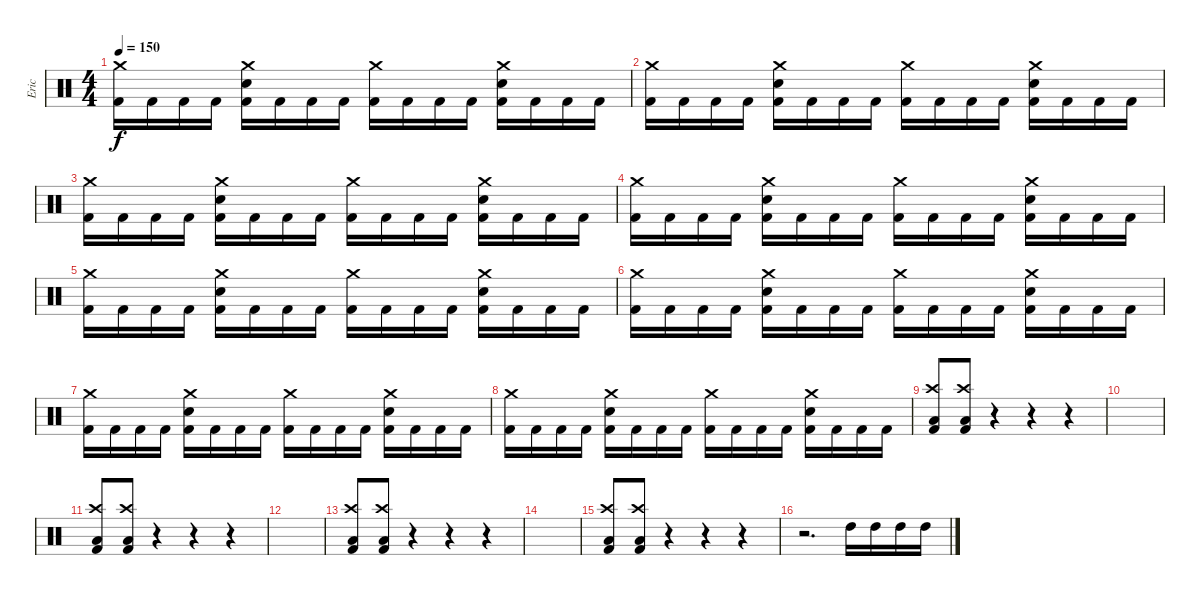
\track ("Eric" "Eric") {instrument percussion}
\staff {score}
\articulation defaults
\ts (4 4)
\tempo 150
\clef neutral
\ks c
("Crash medium (hit)" "Kick (hit) 2").16{dy f} "Kick (hit) 2".16 "Kick (hit) 2".16 "Kick (hit) 2".16 ("Crash medium (hit)" "Electric Snare (hit)" "Kick (hit) 2").16 "Kick (hit) 2".16 "Kick (hit) 2".16 "Kick (hit) 2".16 ("Crash medium (hit)" "Kick (hit) 2").16 "Kick (hit) 2".16 "Kick (hit) 2".16 "Kick (hit) 2".16 ("Crash medium (hit)" "Electric Snare (hit)" "Kick (hit) 2").16 "Kick (hit) 2".16 "Kick (hit) 2".16 "Kick (hit) 2".16 |
("Crash medium (hit)" "Kick (hit) 2").16 "Kick (hit) 2".16 "Kick (hit) 2".16 "Kick (hit) 2".16 ("Crash medium (hit)" "Electric Snare (hit)" "Kick (hit) 2").16 "Kick (hit) 2".16 "Kick (hit) 2".16 "Kick (hit) 2".16 ("Crash medium (hit)" "Kick (hit) 2").16 "Kick (hit) 2".16 "Kick (hit) 2".16 "Kick (hit) 2".16 ("Crash medium (hit)" "Electric Snare (hit)" "Kick (hit) 2").16 "Kick (hit) 2".16 "Kick (hit) 2".16 "Kick (hit) 2".16 |
("Crash medium (hit)" "Kick (hit) 2").16 "Kick (hit) 2".16 "Kick (hit) 2".16 "Kick (hit) 2".16 ("Crash medium (hit)" "Electric Snare (hit)" "Kick (hit) 2").16 "Kick (hit) 2".16 "Kick (hit) 2".16 "Kick (hit) 2".16 ("Crash medium (hit)" "Kick (hit) 2").16 "Kick (hit) 2".16 "Kick (hit) 2".16 "Kick (hit) 2".16 ("Crash medium (hit)" "Electric Snare (hit)" "Kick (hit) 2").16 "Kick (hit) 2".16 "Kick (hit) 2".16 "Kick (hit) 2".16 |
("Crash medium (hit)" "Kick (hit) 2").16 "Kick (hit) 2".16 "Kick (hit) 2".16 "Kick (hit) 2".16 ("Crash medium (hit)" "Electric Snare (hit)" "Kick (hit) 2").16 "Kick (hit) 2".16 "Kick (hit) 2".16 "Kick (hit) 2".16 ("Crash medium (hit)" "Kick (hit) 2").16 "Kick (hit) 2".16 "Kick (hit) 2".16 "Kick (hit) 2".16 ("Crash medium (hit)" "Electric Snare (hit)" "Kick (hit) 2").16 "Kick (hit) 2".16 "Kick (hit) 2".16 "Kick (hit) 2".16 |
("Crash medium (hit)" "Kick (hit) 2").16 "Kick (hit) 2".16 "Kick (hit) 2".16 "Kick (hit) 2".16 ("Crash medium (hit)" "Electric Snare (hit)" "Kick (hit) 2").16 "Kick (hit) 2".16 "Kick (hit) 2".16 "Kick (hit) 2".16 ("Crash medium (hit)" "Kick (hit) 2").16 "Kick (hit) 2".16 "Kick (hit) 2".16 "Kick (hit) 2".16 ("Crash medium (hit)" "Electric Snare (hit)" "Kick (hit) 2").16 "Kick (hit) 2".16 "Kick (hit) 2".16 "Kick (hit) 2".16 |
("Crash medium (hit)" "Kick (hit) 2").16 "Kick (hit) 2".16 "Kick (hit) 2".16 "Kick (hit) 2".16 ("Crash medium (hit)" "Electric Snare (hit)" "Kick (hit) 2").16 "Kick (hit) 2".16 "Kick (hit) 2".16 "Kick (hit) 2".16 ("Crash medium (hit)" "Kick (hit) 2").16 "Kick (hit) 2".16 "Kick (hit) 2".16 "Kick (hit) 2".16 ("Crash medium (hit)" "Electric Snare (hit)" "Kick (hit) 2").16 "Kick (hit) 2".16 "Kick (hit) 2".16 "Kick (hit) 2".16 |
("Crash medium (hit)" "Kick (hit) 2").16 "Kick (hit) 2".16 "Kick (hit) 2".16 "Kick (hit) 2".16 ("Crash medium (hit)" "Electric Snare (hit)" "Kick (hit) 2").16 "Kick (hit) 2".16 "Kick (hit) 2".16 "Kick (hit) 2".16 ("Crash medium (hit)" "Kick (hit) 2").16 "Kick (hit) 2".16 "Kick (hit) 2".16 "Kick (hit) 2".16 ("Crash medium (hit)" "Electric Snare (hit)" "Kick (hit) 2").16 "Kick (hit) 2".16 "Kick (hit) 2".16 "Kick (hit) 2".16 |
("Crash medium (hit)" "Kick (hit) 2").16 "Kick (hit) 2".16 "Kick (hit) 2".16 "Kick (hit) 2".16 ("Crash medium (hit)" "Electric Snare (hit)" "Kick (hit) 2").16 "Kick (hit) 2".16 "Kick (hit) 2".16 "Kick (hit) 2".16 ("Crash medium (hit)" "Kick (hit) 2").16 "Kick (hit) 2".16 "Kick (hit) 2".16 "Kick (hit) 2".16 ("Crash medium (hit)" "Electric Snare (hit)" "Kick (hit) 2").16 "Kick (hit) 2".16 "Kick (hit) 2".16 "Kick (hit) 2".16 |
("Crash high (hit)" "Low Floor Tom (hit)" "Kick (hit) 2").8 ("Crash high (hit)" "Low Floor Tom (hit)" "Kick (hit) 2").8 r.4 r.4 r.4 |
|
("Crash high (hit)" "Low Floor Tom (hit)" "Kick (hit) 2").8 ("Crash high (hit)" "Low Floor Tom (hit)" "Kick (hit) 2").8 r.4 r.4 r.4 |
|
("Crash high (hit)" "Low Floor Tom (hit)" "Kick (hit) 2").8 ("Crash high (hit)" "Low Floor Tom (hit)" "Kick (hit) 2").8 r.4 r.4 r.4 |
|
("Crash high (hit)" "Low Floor Tom (hit)" "Kick (hit) 2").8 ("Crash high (hit)" "Low Floor Tom (hit)" "Kick (hit) 2").8 r.4 r.4 r.4 |
r.2{d} "High Tom (hit)".16 "High Tom (hit)".16 "High Tom (hit)".16 "High Tom (hit)".16
